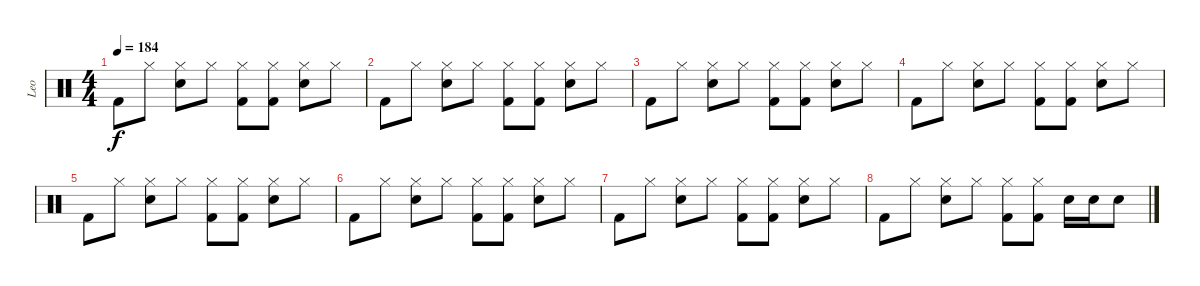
\track ("Leo" "Leo") {instrument percussion}
\staff {score}
\articulation defaults
\ts (4 4)
\tempo 184
\clef neutral
\ks c "Kick (hit) 2".8{dy f} "Hi-Hat (closed)".8
("Hi-Hat (closed)" "Snare (hit) 2").8 "Hi-Hat (closed)".8 ("Kick (hit) 2" "Hi-Hat (closed)").8 ("Kick (hit) 2" "Hi-Hat (closed)").8 ("Hi-Hat (closed)" "Snare (hit) 2").8 "Hi-Hat (closed)".8 |
"Kick (hit) 2".8 "Hi-Hat (closed)".8 ("Hi-Hat (closed)" "Snare (hit) 2").8 "Hi-Hat (closed)".8 ("Kick (hit) 2" "Hi-Hat (closed)").8 ("Kick (hit) 2" "Hi-Hat (closed)").8 ("Hi-Hat (closed)" "Snare (hit) 2").8 "Hi-Hat (closed)".8 |
"Kick (hit) 2".8 "Hi-Hat (closed)".8 ("Hi-Hat (closed)" "Snare (hit) 2").8 "Hi-Hat (closed)".8 ("Kick (hit) 2" "Hi-Hat (closed)").8 ("Kick (hit) 2" "Hi-Hat (closed)").8 ("Hi-Hat (closed)" "Snare (hit) 2").8 "Hi-Hat (closed)".8 |
"Kick (hit) 2".8 "Hi-Hat (closed)".8 ("Hi-Hat (closed)" "Snare (hit) 2").8 "Hi-Hat (closed)".8 ("Kick (hit) 2" "Hi-Hat (closed)").8 ("Kick (hit) 2" "Hi-Hat (closed)").8 ("Hi-Hat (closed)" "Snare (hit) 2").8 "Hi-Hat (closed)".8 |
"Kick (hit) 2".8 "Hi-Hat (closed)".8 ("Hi-Hat (closed)" "Snare (hit) 2").8 "Hi-Hat (closed)".8 ("Kick (hit) 2" "Hi-Hat (closed)").8 ("Kick (hit) 2" "Hi-Hat (closed)").8 ("Hi-Hat (closed)" "Snare (hit) 2").8 "Hi-Hat (closed)".8 |
"Kick (hit) 2".8 "Hi-Hat (closed)".8 ("Hi-Hat (closed)" "Snare (hit) 2").8 "Hi-Hat (closed)".8 ("Kick (hit) 2" "Hi-Hat (closed)").8 ("Kick (hit) 2" "Hi-Hat (closed)").8 ("Hi-Hat (closed)" "Snare (hit) 2").8 "Hi-Hat (closed)".8 |
"Kick (hit) 2".8 "Hi-Hat (closed)".8 ("Hi-Hat (closed)" "Snare (hit) 2").8 "Hi-Hat (closed)".8 ("Kick (hit) 2" "Hi-Hat (closed)").8 ("Kick (hit) 2" "Hi-Hat (closed)").8 ("Hi-Hat (closed)" "Snare (hit) 2").8 "Hi-Hat (closed)".8 |
"Kick (hit) 2".8 "Hi-Hat (closed)".8 ("Hi-Hat (closed)" "Snare (hit) 2").8 "Hi-Hat (closed)".8 ("Kick (hit) 2" "Hi-Hat (closed)").8 ("Kick (hit) 2" "Hi-Hat (closed)").8 "Snare (hit) 2".16 "Snare (hit) 2".16 "Snare (hit) 2".8
